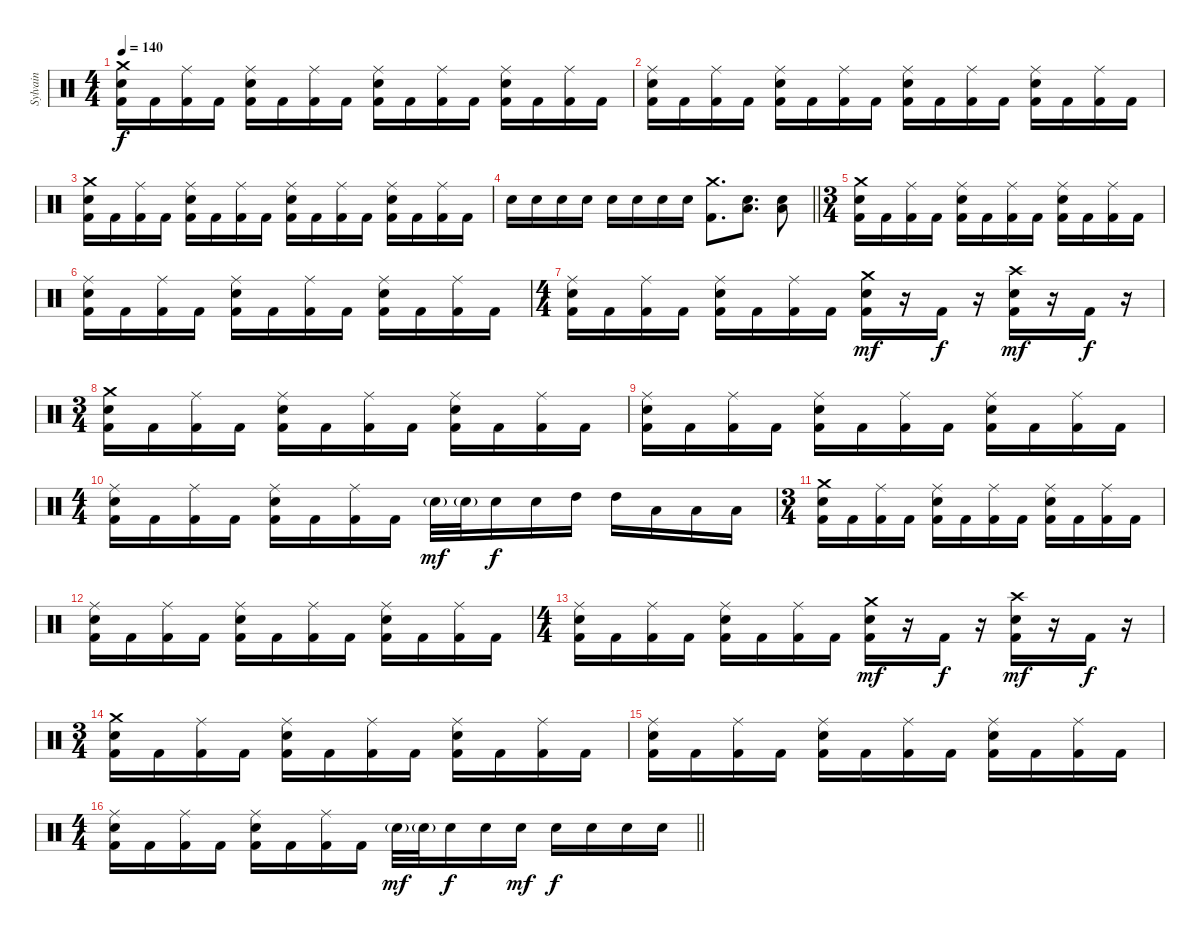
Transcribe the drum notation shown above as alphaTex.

\track ("Sylvain" "Sylvain") {instrument percussion}
\staff {score}
\articulation defaults
\ts (4 4)
\tempo 140
\clef neutral
\ks c
("Crash medium (hit)" "Snare (hit) 2" "Kick (hit) 2").16{dy f} "Kick (hit) 2".16 ("Ride (middle)" "Kick (hit) 2").16 "Kick (hit) 2".16 ("Ride (middle)" "Snare (hit) 2" "Kick (hit) 2").16 "Kick (hit) 2".16 ("Ride (middle)" "Kick (hit) 2").16 "Kick (hit) 2".16 ("Ride (middle)" "Snare (hit) 2" "Kick (hit) 2").16 "Kick (hit) 2".16 ("Ride (middle)" "Kick (hit) 2").16 "Kick (hit) 2".16 ("Ride (middle)" "Snare (hit) 2" "Kick (hit) 2").16 "Kick (hit) 2".16 ("Ride (middle)" "Kick (hit) 2").16 "Kick (hit) 2".16 |
("Ride (middle)" "Snare (hit) 2" "Kick (hit) 2").16 "Kick (hit) 2".16 ("Ride (middle)" "Kick (hit) 2").16 "Kick (hit) 2".16 ("Ride (middle)" "Snare (hit) 2" "Kick (hit) 2").16 "Kick (hit) 2".16 ("Ride (middle)" "Kick (hit) 2").16 "Kick (hit) 2".16 ("Ride (middle)" "Snare (hit) 2" "Kick (hit) 2").16 "Kick (hit) 2".16 ("Ride (middle)" "Kick (hit) 2").16 "Kick (hit) 2".16 ("Ride (middle)" "Snare (hit) 2" "Kick (hit) 2").16 "Kick (hit) 2".16 ("Ride (middle)" "Kick (hit) 2").16 "Kick (hit) 2".16 |
("Crash medium (hit)" "Snare (hit) 2" "Kick (hit) 2").16 "Kick (hit) 2".16 ("Ride (middle)" "Kick (hit) 2").16 "Kick (hit) 2".16 ("Ride (middle)" "Snare (hit) 2" "Kick (hit) 2").16 "Kick (hit) 2".16 ("Ride (middle)" "Kick (hit) 2").16 "Kick (hit) 2".16 ("Ride (middle)" "Snare (hit) 2" "Kick (hit) 2").16 "Kick (hit) 2".16 ("Ride (middle)" "Kick (hit) 2").16 "Kick (hit) 2".16 ("Ride (middle)" "Snare (hit) 2" "Kick (hit) 2").16 "Kick (hit) 2".16 ("Ride (middle)" "Kick (hit) 2").16 "Kick (hit) 2".16 |
\barLineRight lightlight "Snare (hit) 2".16 "Snare (hit) 2".16 "Snare (hit) 2".16 "Snare (hit) 2".16 "Snare (hit) 2".16 "Snare (hit) 2".16 "Snare (hit) 2".16 "Snare (hit) 2".16
("Crash medium (hit)" "Kick (hit) 2").8{d} ("Snare (hit) 2" "Low Floor Tom (hit)").8{d} ("Snare (hit) 2" "Low Floor Tom (hit)").8 |
\ts (3 4)
("Crash medium (hit)" "Snare (hit) 2" "Kick (hit) 2").16 "Kick (hit) 2".16 ("Ride (middle)" "Kick (hit) 2").16 "Kick (hit) 2".16 ("Ride (middle)" "Snare (hit) 2" "Kick (hit) 2").16 "Kick (hit) 2".16 ("Ride (middle)" "Kick (hit) 2").16 "Kick (hit) 2".16 ("Ride (middle)" "Snare (hit) 2" "Kick (hit) 2").16 "Kick (hit) 2".16 ("Ride (middle)" "Kick (hit) 2").16 "Kick (hit) 2".16 |
("Ride (middle)" "Snare (hit) 2" "Kick (hit) 2").16 "Kick (hit) 2".16 ("Ride (middle)" "Kick (hit) 2").16 "Kick (hit) 2".16 ("Ride (middle)" "Snare (hit) 2" "Kick (hit) 2").16 "Kick (hit) 2".16 ("Ride (middle)" "Kick (hit) 2").16 "Kick (hit) 2".16 ("Ride (middle)" "Snare (hit) 2" "Kick (hit) 2").16 "Kick (hit) 2".16 ("Ride (middle)" "Kick (hit) 2").16 "Kick (hit) 2".16 |
\ts (4 4)
("Ride (middle)" "Snare (hit) 2" "Kick (hit) 2").16 "Kick (hit) 2".16 ("Ride (middle)" "Kick (hit) 2").16 "Kick (hit) 2".16 ("Ride (middle)" "Snare (hit) 2" "Kick (hit) 2").16 "Kick (hit) 2".16 ("Ride (middle)" "Kick (hit) 2").16 "Kick (hit) 2".16 ("Crash medium (hit)" "Snare (hit) 2" "Kick (hit) 2").16{dy mf} r.16 "Kick (hit) 2".16{dy f} r.16 ("Crash high (hit)" "Snare (hit) 2" "Kick (hit) 2").16{dy mf} r.16 "Kick (hit) 2".16{dy f} r.16 |
\ts (3 4)
("Crash medium (hit)" "Snare (hit) 2" "Kick (hit) 2").16 "Kick (hit) 2".16 ("Ride (middle)" "Kick (hit) 2").16 "Kick (hit) 2".16 ("Ride (middle)" "Snare (hit) 2" "Kick (hit) 2").16 "Kick (hit) 2".16 ("Ride (middle)" "Kick (hit) 2").16 "Kick (hit) 2".16 ("Ride (middle)" "Snare (hit) 2" "Kick (hit) 2").16 "Kick (hit) 2".16 ("Ride (middle)" "Kick (hit) 2").16 "Kick (hit) 2".16 |
("Ride (middle)" "Snare (hit) 2" "Kick (hit) 2").16 "Kick (hit) 2".16 ("Ride (middle)" "Kick (hit) 2").16 "Kick (hit) 2".16 ("Ride (middle)" "Snare (hit) 2" "Kick (hit) 2").16 "Kick (hit) 2".16 ("Ride (middle)" "Kick (hit) 2").16 "Kick (hit) 2".16 ("Ride (middle)" "Snare (hit) 2" "Kick (hit) 2").16 "Kick (hit) 2".16 ("Ride (middle)" "Kick (hit) 2").16 "Kick (hit) 2".16 |
\ts (4 4)
("Ride (middle)" "Snare (hit) 2" "Kick (hit) 2").16 "Kick (hit) 2".16 ("Ride (middle)" "Kick (hit) 2").16 "Kick (hit) 2".16 ("Ride (middle)" "Snare (hit) 2" "Kick (hit) 2").16 "Kick (hit) 2".16 ("Ride (middle)" "Kick (hit) 2").16 "Kick (hit) 2".16 "Snare (hit) 2"{g}.32{dy mf} "Snare (hit) 2"{g}.32 "Snare (hit) 2".16{dy f} "Snare (hit) 2".16 "High Tom (hit)".16 "High Tom (hit)".16 "Low Tom (hit)".16 "Low Tom (hit)".16 "Low Floor Tom (hit)".16 |
\ts (3 4)
("Crash medium (hit)" "Snare (hit) 2" "Kick (hit) 2").16 "Kick (hit) 2".16 ("Ride (middle)" "Kick (hit) 2").16 "Kick (hit) 2".16 ("Ride (middle)" "Snare (hit) 2" "Kick (hit) 2").16 "Kick (hit) 2".16 ("Ride (middle)" "Kick (hit) 2").16 "Kick (hit) 2".16 ("Ride (middle)" "Snare (hit) 2" "Kick (hit) 2").16 "Kick (hit) 2".16 ("Ride (middle)" "Kick (hit) 2").16 "Kick (hit) 2".16 |
("Ride (middle)" "Snare (hit) 2" "Kick (hit) 2").16 "Kick (hit) 2".16 ("Ride (middle)" "Kick (hit) 2").16 "Kick (hit) 2".16 ("Ride (middle)" "Snare (hit) 2" "Kick (hit) 2").16 "Kick (hit) 2".16 ("Ride (middle)" "Kick (hit) 2").16 "Kick (hit) 2".16 ("Ride (middle)" "Snare (hit) 2" "Kick (hit) 2").16 "Kick (hit) 2".16 ("Ride (middle)" "Kick (hit) 2").16 "Kick (hit) 2".16 |
\ts (4 4)
("Ride (middle)" "Snare (hit) 2" "Kick (hit) 2").16 "Kick (hit) 2".16 ("Ride (middle)" "Kick (hit) 2").16 "Kick (hit) 2".16 ("Ride (middle)" "Snare (hit) 2" "Kick (hit) 2").16 "Kick (hit) 2".16 ("Ride (middle)" "Kick (hit) 2").16 "Kick (hit) 2".16 ("Crash medium (hit)" "Snare (hit) 2" "Kick (hit) 2").16{dy mf} r.16 "Kick (hit) 2".16{dy f} r.16 ("Crash high (hit)" "Snare (hit) 2" "Kick (hit) 2").16{dy mf} r.16 "Kick (hit) 2".16{dy f} r.16 |
\ts (3 4)
("Crash medium (hit)" "Snare (hit) 2" "Kick (hit) 2").16 "Kick (hit) 2".16 ("Ride (middle)" "Kick (hit) 2").16 "Kick (hit) 2".16 ("Ride (middle)" "Snare (hit) 2" "Kick (hit) 2").16 "Kick (hit) 2".16 ("Ride (middle)" "Kick (hit) 2").16 "Kick (hit) 2".16 ("Ride (middle)" "Snare (hit) 2" "Kick (hit) 2").16 "Kick (hit) 2".16 ("Ride (middle)" "Kick (hit) 2").16 "Kick (hit) 2".16 |
("Ride (middle)" "Snare (hit) 2" "Kick (hit) 2").16 "Kick (hit) 2".16 ("Ride (middle)" "Kick (hit) 2").16 "Kick (hit) 2".16 ("Ride (middle)" "Snare (hit) 2" "Kick (hit) 2").16 "Kick (hit) 2".16 ("Ride (middle)" "Kick (hit) 2").16 "Kick (hit) 2".16 ("Ride (middle)" "Snare (hit) 2" "Kick (hit) 2").16 "Kick (hit) 2".16 ("Ride (middle)" "Kick (hit) 2").16 "Kick (hit) 2".16 |
\ts (4 4)
\barLineRight lightlight
("Ride (middle)" "Snare (hit) 2" "Kick (hit) 2").16 "Kick (hit) 2".16 ("Ride (middle)" "Kick (hit) 2").16 "Kick (hit) 2".16 ("Ride (middle)" "Snare (hit) 2" "Kick (hit) 2").16 "Kick (hit) 2".16 ("Ride (middle)" "Kick (hit) 2").16 "Kick (hit) 2".16 "Snare (hit) 2"{g}.32{dy mf} "Snare (hit) 2"{g}.32 "Snare (hit) 2".16{dy f} "Snare (hit) 2".16 "Snare (hit) 2".16{dy mf} "Snare (hit) 2".16{dy f} "Snare (hit) 2".16 "Snare (hit) 2".16 "Snare (hit) 2".16
